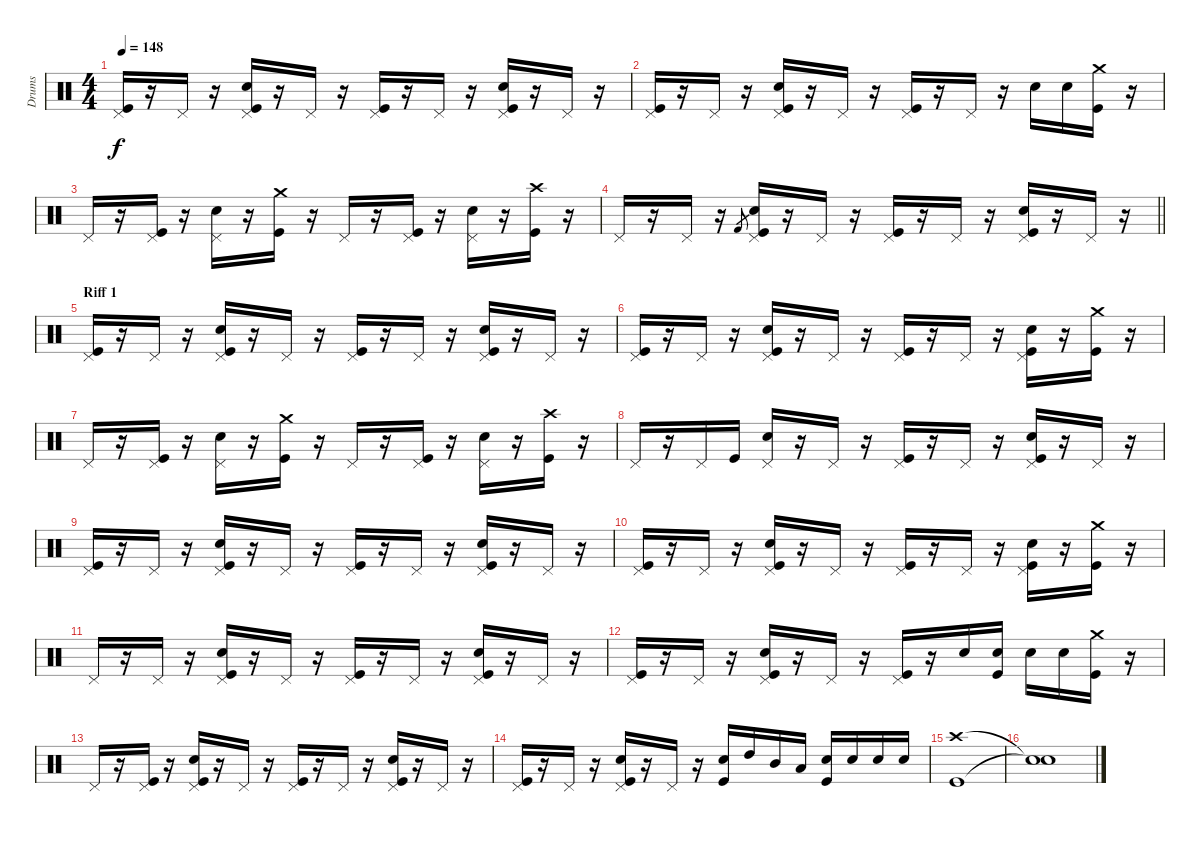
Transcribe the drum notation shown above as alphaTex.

\track ("Drums" "Drums") {instrument percussion}
\staff {score}
\articulation defaults
\ts (4 4)
\tempo 148
\clef neutral
\ks c
("Pedal Hi-Hat (hit)" "Kick (hit)").16{dy f} r.16 "Pedal Hi-Hat (hit)".16 r.16 ("Pedal Hi-Hat (hit)" "Electric Snare (hit)" "Kick (hit)").16 r.16 "Pedal Hi-Hat (hit)".16 r.16 ("Pedal Hi-Hat (hit)" "Kick (hit)").16 r.16 "Pedal Hi-Hat (hit)".16 r.16 ("Pedal Hi-Hat (hit)" "Electric Snare (hit)" "Kick (hit)").16 r.16 "Pedal Hi-Hat (hit)".16 r.16 |
("Pedal Hi-Hat (hit)" "Kick (hit)").16 r.16 "Pedal Hi-Hat (hit)".16 r.16 ("Pedal Hi-Hat (hit)" "Electric Snare (hit)" "Kick (hit)").16 r.16 "Pedal Hi-Hat (hit)".16 r.16 ("Pedal Hi-Hat (hit)" "Kick (hit)").16 r.16 "Pedal Hi-Hat (hit)".16 r.16 "Electric Snare (hit)".16 "Electric Snare (hit)".16 ("Crash medium (hit)" "Kick (hit)").16 r.16 |
"Pedal Hi-Hat (hit)".16 r.16 ("Pedal Hi-Hat (hit)" "Kick (hit)").16 r.16 ("Pedal Hi-Hat (hit)" "Electric Snare (hit)").16 r.16 ("Crash medium (hit)" "Kick (hit)").16 r.16 "Pedal Hi-Hat (hit)".16 r.16 ("Pedal Hi-Hat (hit)" "Kick (hit)").16 r.16 ("Pedal Hi-Hat (hit)" "Electric Snare (hit)").16 r.16 ("Crash high (hit)" "Kick (hit)").16 r.16 |
\barLineRight lightlight "Pedal Hi-Hat (hit)".16
r.16 "Pedal Hi-Hat (hit)".16 r.16 "Kick (hit) 2".8{gr} ("Pedal Hi-Hat (hit)" "Electric Snare (hit)" "Kick (hit)").16 r.16 "Pedal Hi-Hat (hit)".16 r.16 ("Pedal Hi-Hat (hit)" "Kick (hit)").16 r.16 "Pedal Hi-Hat (hit)".16 r.16 ("Pedal Hi-Hat (hit)" "Electric Snare (hit)" "Kick (hit)").16 r.16 "Pedal Hi-Hat (hit)".16 r.16 |
\section ("" "Riff 1")
("Pedal Hi-Hat (hit)" "Kick (hit)").16 r.16 "Pedal Hi-Hat (hit)".16 r.16 ("Pedal Hi-Hat (hit)" "Electric Snare (hit)" "Kick (hit)").16 r.16 "Pedal Hi-Hat (hit)".16 r.16 ("Pedal Hi-Hat (hit)" "Kick (hit)").16 r.16 "Pedal Hi-Hat (hit)".16 r.16 ("Pedal Hi-Hat (hit)" "Electric Snare (hit)" "Kick (hit)").16 r.16 "Pedal Hi-Hat (hit)".16 r.16 |
("Pedal Hi-Hat (hit)" "Kick (hit)").16 r.16 "Pedal Hi-Hat (hit)".16 r.16 ("Pedal Hi-Hat (hit)" "Electric Snare (hit)" "Kick (hit)").16 r.16 "Pedal Hi-Hat (hit)".16 r.16 ("Pedal Hi-Hat (hit)" "Kick (hit)").16 r.16 "Pedal Hi-Hat (hit)".16 r.16 ("Pedal Hi-Hat (hit)" "Electric Snare (hit)" "Kick (hit)").16 r.16 ("Crash medium (hit)" "Kick (hit)").16 r.16 |
"Pedal Hi-Hat (hit)".16 r.16 ("Pedal Hi-Hat (hit)" "Kick (hit)").16 r.16 ("Pedal Hi-Hat (hit)" "Electric Snare (hit)").16 r.16 ("Crash medium (hit)" "Kick (hit)").16 r.16 "Pedal Hi-Hat (hit)".16 r.16 ("Pedal Hi-Hat (hit)" "Kick (hit)").16 r.16 ("Pedal Hi-Hat (hit)" "Electric Snare (hit)").16 r.16 ("Crash high (hit)" "Kick (hit)").16 r.16 |
"Pedal Hi-Hat (hit)".16 r.16 "Pedal Hi-Hat (hit)".16 "Kick (hit)".16 ("Pedal Hi-Hat (hit)" "Electric Snare (hit)").16 r.16 "Pedal Hi-Hat (hit)".16 r.16 ("Pedal Hi-Hat (hit)" "Kick (hit)").16 r.16 "Pedal Hi-Hat (hit)".16 r.16 ("Pedal Hi-Hat (hit)" "Electric Snare (hit)" "Kick (hit)").16 r.16 "Pedal Hi-Hat (hit)".16 r.16 |
("Pedal Hi-Hat (hit)" "Kick (hit)").16 r.16 "Pedal Hi-Hat (hit)".16 r.16 ("Pedal Hi-Hat (hit)" "Electric Snare (hit)" "Kick (hit)").16 r.16 "Pedal Hi-Hat (hit)".16 r.16 ("Pedal Hi-Hat (hit)" "Kick (hit)").16 r.16 "Pedal Hi-Hat (hit)".16 r.16 ("Pedal Hi-Hat (hit)" "Electric Snare (hit)" "Kick (hit)").16 r.16 "Pedal Hi-Hat (hit)".16 r.16 |
("Pedal Hi-Hat (hit)" "Kick (hit)").16 r.16 "Pedal Hi-Hat (hit)".16 r.16 ("Pedal Hi-Hat (hit)" "Electric Snare (hit)" "Kick (hit)").16 r.16 "Pedal Hi-Hat (hit)".16 r.16 ("Pedal Hi-Hat (hit)" "Kick (hit)").16 r.16 "Pedal Hi-Hat (hit)".16 r.16 ("Pedal Hi-Hat (hit)" "Electric Snare (hit)" "Kick (hit)").16 r.16 ("Crash medium (hit)" "Kick (hit)").16 r.16 |
"Pedal Hi-Hat (hit)".16 r.16 "Pedal Hi-Hat (hit)".16 r.16 ("Pedal Hi-Hat (hit)" "Electric Snare (hit)" "Kick (hit)").16 r.16 "Pedal Hi-Hat (hit)".16 r.16 ("Pedal Hi-Hat (hit)" "Kick (hit)").16 r.16 "Pedal Hi-Hat (hit)".16 r.16 ("Pedal Hi-Hat (hit)" "Electric Snare (hit)" "Kick (hit)").16 r.16 "Pedal Hi-Hat (hit)".16 r.16 |
("Pedal Hi-Hat (hit)" "Kick (hit)").16 r.16 "Pedal Hi-Hat (hit)".16 r.16 ("Pedal Hi-Hat (hit)" "Electric Snare (hit)" "Kick (hit)").16 r.16 "Pedal Hi-Hat (hit)".16 r.16 ("Pedal Hi-Hat (hit)" "Kick (hit)").16 r.16 "Electric Snare (hit)".16 ("Electric Snare (hit)" "Kick (hit)").16 "Electric Snare (hit)".16 "Electric Snare (hit)".16 ("Crash medium (hit)" "Kick (hit)").16 r.16 |
"Pedal Hi-Hat (hit)".16 r.16 ("Pedal Hi-Hat (hit)" "Kick (hit)").16 r.16 ("Pedal Hi-Hat (hit)" "Electric Snare (hit)" "Kick (hit)").16 r.16 "Pedal Hi-Hat (hit)".16 r.16 ("Pedal Hi-Hat (hit)" "Kick (hit)").16 r.16 "Pedal Hi-Hat (hit)".16 r.16 ("Pedal Hi-Hat (hit)" "Electric Snare (hit)" "Kick (hit)").16 r.16 "Pedal Hi-Hat (hit)".16 r.16 |
("Pedal Hi-Hat (hit)" "Kick (hit)").16 r.16 "Pedal Hi-Hat (hit)".16 r.16 ("Pedal Hi-Hat (hit)" "Electric Snare (hit)" "Kick (hit)").16 r.16 "Pedal Hi-Hat (hit)".16 r.16 ("Electric Snare (hit)" "Kick (hit)").16 "High Tom (hit)".16 "Mid Tom (hit)".16 "Low Tom (hit)".16 ("Electric Snare (hit)" "Kick (hit)").16 "Electric Snare (hit)".16 "Electric Snare (hit)".16 "Electric Snare (hit)".16 |
("Crash high (hit)" "Kick (hit)").1 |
("Snare (hit)"{t} "Snare (hit)"{t}).1
